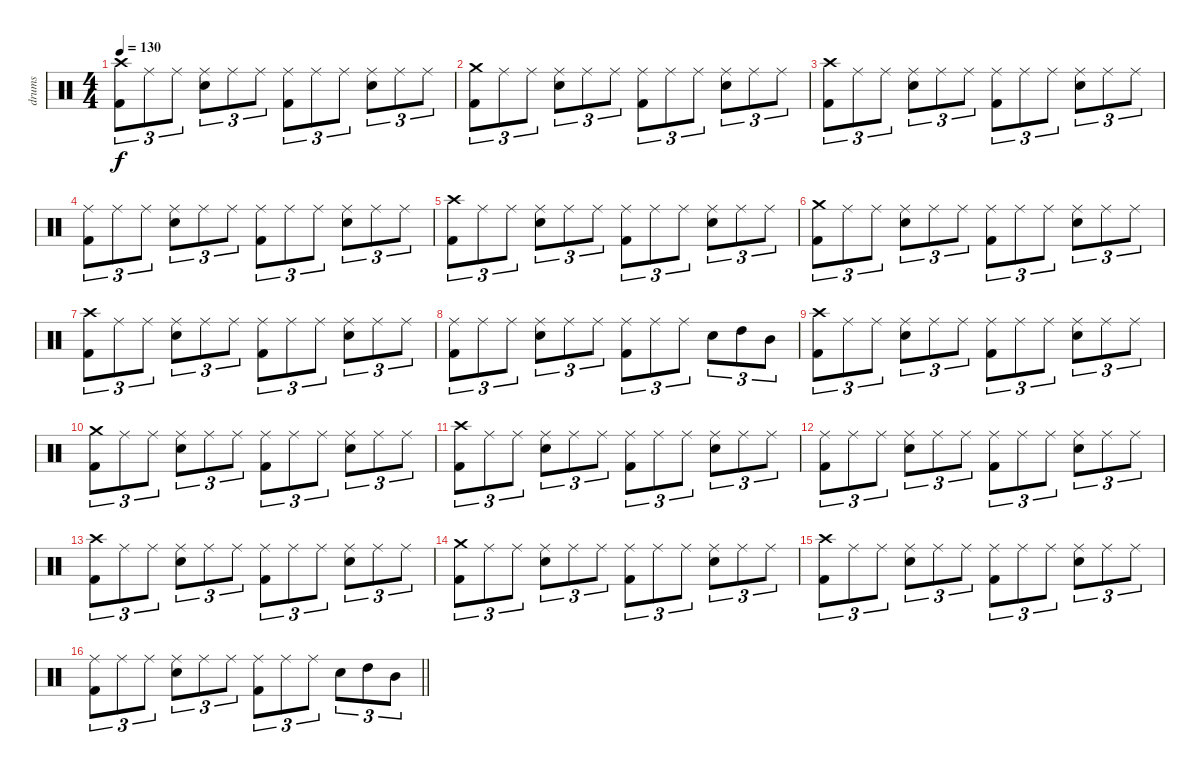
\track ("drums" "drums") {instrument percussion}
\staff {score}
\articulation defaults
\ts (4 4)
\tempo 130
\clef neutral
\ks c
("Crash high (hit)" "Kick (hit) 2").8{tu (3 2) dy f} "Ride (middle)".8{tu (3 2)} "Ride (middle)".8{tu (3 2)} ("Ride (middle)" "Electric Snare (hit)").8{tu (3 2)} "Ride (middle)".8{tu (3 2)} "Ride (middle)".8{tu (3 2)} ("Ride (middle)" "Kick (hit) 2").8{tu (3 2)} "Ride (middle)".8{tu (3 2)} "Ride (middle)".8{tu (3 2)} ("Ride (middle)" "Electric Snare (hit)").8{tu (3 2)} "Ride (middle)".8{tu (3 2)} "Ride (middle)".8{tu (3 2)} |
("Crash medium (hit)" "Kick (hit) 2").8{tu (3 2)} "Ride (middle)".8{tu (3 2)} "Ride (middle)".8{tu (3 2)} ("Ride (middle)" "Electric Snare (hit)").8{tu (3 2)} "Ride (middle)".8{tu (3 2)} "Ride (middle)".8{tu (3 2)} ("Ride (middle)" "Kick (hit) 2").8{tu (3 2)} "Ride (middle)".8{tu (3 2)} "Ride (middle)".8{tu (3 2)} ("Ride (middle)" "Electric Snare (hit)").8{tu (3 2)} "Ride (middle)".8{tu (3 2)} "Ride (middle)".8{tu (3 2)} |
("Crash high (hit)" "Kick (hit) 2").8{tu (3 2)} "Ride (middle)".8{tu (3 2)} "Ride (middle)".8{tu (3 2)} ("Ride (middle)" "Electric Snare (hit)").8{tu (3 2)} "Ride (middle)".8{tu (3 2)} "Ride (middle)".8{tu (3 2)} ("Ride (middle)" "Kick (hit) 2").8{tu (3 2)} "Ride (middle)".8{tu (3 2)} "Ride (middle)".8{tu (3 2)} ("Ride (middle)" "Electric Snare (hit)").8{tu (3 2)} "Ride (middle)".8{tu (3 2)} "Ride (middle)".8{tu (3 2)} |
("Ride (middle)" "Kick (hit) 2").8{tu (3 2)} "Ride (middle)".8{tu (3 2)} "Ride (middle)".8{tu (3 2)} ("Ride (middle)" "Electric Snare (hit)").8{tu (3 2)} "Ride (middle)".8{tu (3 2)} "Ride (middle)".8{tu (3 2)} ("Ride (middle)" "Kick (hit) 2").8{tu (3 2)} "Ride (middle)".8{tu (3 2)} "Ride (middle)".8{tu (3 2)} ("Ride (middle)" "Electric Snare (hit)").8{tu (3 2)} "Ride (middle)".8{tu (3 2)} "Ride (middle)".8{tu (3 2)} |
("Crash high (hit)" "Kick (hit) 2").8{tu (3 2)} "Ride (middle)".8{tu (3 2)} "Ride (middle)".8{tu (3 2)} ("Ride (middle)" "Electric Snare (hit)").8{tu (3 2)} "Ride (middle)".8{tu (3 2)} "Ride (middle)".8{tu (3 2)} ("Ride (middle)" "Kick (hit) 2").8{tu (3 2)} "Ride (middle)".8{tu (3 2)} "Ride (middle)".8{tu (3 2)} ("Ride (middle)" "Electric Snare (hit)").8{tu (3 2)} "Ride (middle)".8{tu (3 2)} "Ride (middle)".8{tu (3 2)} |
("Crash medium (hit)" "Kick (hit) 2").8{tu (3 2)} "Ride (middle)".8{tu (3 2)} "Ride (middle)".8{tu (3 2)} ("Ride (middle)" "Electric Snare (hit)").8{tu (3 2)} "Ride (middle)".8{tu (3 2)} "Ride (middle)".8{tu (3 2)} ("Ride (middle)" "Kick (hit) 2").8{tu (3 2)} "Ride (middle)".8{tu (3 2)} "Ride (middle)".8{tu (3 2)} ("Ride (middle)" "Electric Snare (hit)").8{tu (3 2)} "Ride (middle)".8{tu (3 2)} "Ride (middle)".8{tu (3 2)} |
("Crash high (hit)" "Kick (hit) 2").8{tu (3 2)} "Ride (middle)".8{tu (3 2)} "Ride (middle)".8{tu (3 2)} ("Ride (middle)" "Electric Snare (hit)").8{tu (3 2)} "Ride (middle)".8{tu (3 2)} "Ride (middle)".8{tu (3 2)} ("Ride (middle)" "Kick (hit) 2").8{tu (3 2)} "Ride (middle)".8{tu (3 2)} "Ride (middle)".8{tu (3 2)} ("Ride (middle)" "Electric Snare (hit)").8{tu (3 2)} "Ride (middle)".8{tu (3 2)} "Ride (middle)".8{tu (3 2)} |
("Ride (middle)" "Kick (hit) 2").8{tu (3 2)} "Ride (middle)".8{tu (3 2)} "Ride (middle)".8{tu (3 2)} ("Ride (middle)" "Electric Snare (hit)").8{tu (3 2)} "Ride (middle)".8{tu (3 2)} "Ride (middle)".8{tu (3 2)} ("Ride (middle)" "Kick (hit) 2").8{tu (3 2)} "Ride (middle)".8{tu (3 2)} "Ride (middle)".8{tu (3 2)} "Electric Snare (hit)".8{tu (3 2)} "High Tom (hit)".8{tu (3 2)} "Mid Tom (hit)".8{tu (3 2)} |
("Crash high (hit)" "Kick (hit) 2").8{tu (3 2)} "Ride (middle)".8{tu (3 2)} "Ride (middle)".8{tu (3 2)} ("Ride (middle)" "Electric Snare (hit)").8{tu (3 2)} "Ride (middle)".8{tu (3 2)} "Ride (middle)".8{tu (3 2)} ("Ride (middle)" "Kick (hit) 2").8{tu (3 2)} "Ride (middle)".8{tu (3 2)} "Ride (middle)".8{tu (3 2)} ("Ride (middle)" "Electric Snare (hit)").8{tu (3 2)} "Ride (middle)".8{tu (3 2)} "Ride (middle)".8{tu (3 2)} |
("Crash medium (hit)" "Kick (hit) 2").8{tu (3 2)} "Ride (middle)".8{tu (3 2)} "Ride (middle)".8{tu (3 2)} ("Ride (middle)" "Electric Snare (hit)").8{tu (3 2)} "Ride (middle)".8{tu (3 2)} "Ride (middle)".8{tu (3 2)} ("Ride (middle)" "Kick (hit) 2").8{tu (3 2)} "Ride (middle)".8{tu (3 2)} "Ride (middle)".8{tu (3 2)} ("Ride (middle)" "Electric Snare (hit)").8{tu (3 2)} "Ride (middle)".8{tu (3 2)} "Ride (middle)".8{tu (3 2)} |
("Crash high (hit)" "Kick (hit) 2").8{tu (3 2)} "Ride (middle)".8{tu (3 2)} "Ride (middle)".8{tu (3 2)} ("Ride (middle)" "Electric Snare (hit)").8{tu (3 2)} "Ride (middle)".8{tu (3 2)} "Ride (middle)".8{tu (3 2)} ("Ride (middle)" "Kick (hit) 2").8{tu (3 2)} "Ride (middle)".8{tu (3 2)} "Ride (middle)".8{tu (3 2)} ("Ride (middle)" "Electric Snare (hit)").8{tu (3 2)} "Ride (middle)".8{tu (3 2)} "Ride (middle)".8{tu (3 2)} |
("Ride (middle)" "Kick (hit) 2").8{tu (3 2)} "Ride (middle)".8{tu (3 2)} "Ride (middle)".8{tu (3 2)} ("Ride (middle)" "Electric Snare (hit)").8{tu (3 2)} "Ride (middle)".8{tu (3 2)} "Ride (middle)".8{tu (3 2)} ("Ride (middle)" "Kick (hit) 2").8{tu (3 2)} "Ride (middle)".8{tu (3 2)} "Ride (middle)".8{tu (3 2)} ("Ride (middle)" "Electric Snare (hit)").8{tu (3 2)} "Ride (middle)".8{tu (3 2)} "Ride (middle)".8{tu (3 2)} |
("Crash high (hit)" "Kick (hit) 2").8{tu (3 2)} "Ride (middle)".8{tu (3 2)} "Ride (middle)".8{tu (3 2)} ("Ride (middle)" "Electric Snare (hit)").8{tu (3 2)} "Ride (middle)".8{tu (3 2)} "Ride (middle)".8{tu (3 2)} ("Ride (middle)" "Kick (hit) 2").8{tu (3 2)} "Ride (middle)".8{tu (3 2)} "Ride (middle)".8{tu (3 2)} ("Ride (middle)" "Electric Snare (hit)").8{tu (3 2)} "Ride (middle)".8{tu (3 2)} "Ride (middle)".8{tu (3 2)} |
("Crash medium (hit)" "Kick (hit) 2").8{tu (3 2)} "Ride (middle)".8{tu (3 2)} "Ride (middle)".8{tu (3 2)} ("Ride (middle)" "Electric Snare (hit)").8{tu (3 2)} "Ride (middle)".8{tu (3 2)} "Ride (middle)".8{tu (3 2)} ("Ride (middle)" "Kick (hit) 2").8{tu (3 2)} "Ride (middle)".8{tu (3 2)} "Ride (middle)".8{tu (3 2)} ("Ride (middle)" "Electric Snare (hit)").8{tu (3 2)} "Ride (middle)".8{tu (3 2)} "Ride (middle)".8{tu (3 2)} |
("Crash high (hit)" "Kick (hit) 2").8{tu (3 2)} "Ride (middle)".8{tu (3 2)} "Ride (middle)".8{tu (3 2)} ("Ride (middle)" "Electric Snare (hit)").8{tu (3 2)} "Ride (middle)".8{tu (3 2)} "Ride (middle)".8{tu (3 2)} ("Ride (middle)" "Kick (hit) 2").8{tu (3 2)} "Ride (middle)".8{tu (3 2)} "Ride (middle)".8{tu (3 2)} ("Ride (middle)" "Electric Snare (hit)").8{tu (3 2)} "Ride (middle)".8{tu (3 2)} "Ride (middle)".8{tu (3 2)} |
\barLineRight lightlight
("Ride (middle)" "Kick (hit) 2").8{tu (3 2)} "Ride (middle)".8{tu (3 2)} "Ride (middle)".8{tu (3 2)} ("Ride (middle)" "Electric Snare (hit)").8{tu (3 2)} "Ride (middle)".8{tu (3 2)} "Ride (middle)".8{tu (3 2)} ("Ride (middle)" "Kick (hit) 2").8{tu (3 2)} "Ride (middle)".8{tu (3 2)} "Ride (middle)".8{tu (3 2)} "Electric Snare (hit)".8{tu (3 2)} "High Tom (hit)".8{tu (3 2)} "Mid Tom (hit)".8{tu (3 2)}
